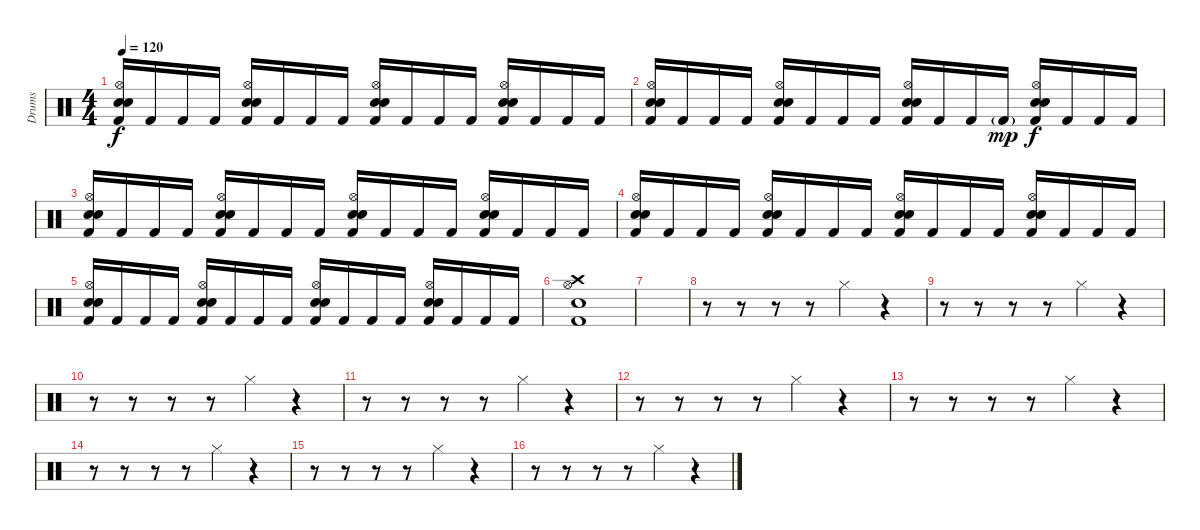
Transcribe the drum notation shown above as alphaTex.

\track ("Drums" "Drums") {instrument percussion}
\staff {score}
\articulation defaults
\ts (4 4)
\tempo 120
\clef neutral
\ks c
("Kick (hit) 2" "Hi-Hat (open)" "Electric Snare (hit)" "Snare (hit) 2").16{dy f} "Kick (hit) 2".16 "Kick (hit) 2".16 "Kick (hit) 2".16 ("Kick (hit) 2" "Hi-Hat (open)" "Electric Snare (hit)" "Snare (hit) 2").16 "Kick (hit) 2".16 "Kick (hit) 2".16 "Kick (hit) 2".16 ("Kick (hit) 2" "Hi-Hat (open)" "Electric Snare (hit)" "Snare (hit) 2").16 "Kick (hit) 2".16 "Kick (hit) 2".16 "Kick (hit) 2".16 ("Kick (hit) 2" "Hi-Hat (open)" "Electric Snare (hit)" "Snare (hit) 2").16 "Kick (hit) 2".16 "Kick (hit) 2".16 "Kick (hit) 2".16 |
("Kick (hit) 2" "Hi-Hat (open)" "Electric Snare (hit)" "Snare (hit) 2").16 "Kick (hit) 2".16 "Kick (hit) 2".16 "Kick (hit) 2".16 ("Kick (hit) 2" "Hi-Hat (open)" "Electric Snare (hit)" "Snare (hit) 2").16 "Kick (hit) 2".16 "Kick (hit) 2".16 "Kick (hit) 2".16 ("Kick (hit) 2" "Hi-Hat (open)" "Electric Snare (hit)" "Snare (hit) 2").16 "Kick (hit) 2".16 "Kick (hit) 2".16 "Kick (hit) 2"{g}.16{dy mp} ("Kick (hit) 2" "Hi-Hat (open)" "Electric Snare (hit)" "Snare (hit) 2").16{dy f} "Kick (hit) 2".16 "Kick (hit) 2".16 "Kick (hit) 2".16 |
("Kick (hit) 2" "Hi-Hat (open)" "Electric Snare (hit)" "Snare (hit) 2").16 "Kick (hit) 2".16 "Kick (hit) 2".16 "Kick (hit) 2".16 ("Kick (hit) 2" "Hi-Hat (open)" "Electric Snare (hit)" "Snare (hit) 2").16 "Kick (hit) 2".16 "Kick (hit) 2".16 "Kick (hit) 2".16 ("Kick (hit) 2" "Hi-Hat (open)" "Electric Snare (hit)" "Snare (hit) 2").16 "Kick (hit) 2".16 "Kick (hit) 2".16 "Kick (hit) 2".16 ("Kick (hit) 2" "Hi-Hat (open)" "Electric Snare (hit)" "Snare (hit) 2").16 "Kick (hit) 2".16 "Kick (hit) 2".16 "Kick (hit) 2".16 |
("Kick (hit) 2" "Hi-Hat (open)" "Electric Snare (hit)" "Snare (hit) 2").16 "Kick (hit) 2".16 "Kick (hit) 2".16 "Kick (hit) 2".16 ("Kick (hit) 2" "Hi-Hat (open)" "Electric Snare (hit)" "Snare (hit) 2").16 "Kick (hit) 2".16 "Kick (hit) 2".16 "Kick (hit) 2".16 ("Kick (hit) 2" "Hi-Hat (open)" "Electric Snare (hit)" "Snare (hit) 2").16 "Kick (hit) 2".16 "Kick (hit) 2".16 "Kick (hit) 2".16 ("Kick (hit) 2" "Hi-Hat (open)" "Electric Snare (hit)" "Snare (hit) 2").16 "Kick (hit) 2".16 "Kick (hit) 2".16 "Kick (hit) 2".16 |
("Kick (hit) 2" "Hi-Hat (open)" "Electric Snare (hit)" "Snare (hit) 2").16 "Kick (hit) 2".16 "Kick (hit) 2".16 "Kick (hit) 2".16 ("Kick (hit) 2" "Hi-Hat (open)" "Electric Snare (hit)" "Snare (hit) 2").16 "Kick (hit) 2".16 "Kick (hit) 2".16 "Kick (hit) 2".16 ("Kick (hit) 2" "Hi-Hat (open)" "Electric Snare (hit)" "Snare (hit) 2").16 "Kick (hit) 2".16 "Kick (hit) 2".16 "Kick (hit) 2".16 ("Kick (hit) 2" "Hi-Hat (open)" "Electric Snare (hit)" "Snare (hit) 2").16 "Kick (hit) 2".16 "Kick (hit) 2".16 "Kick (hit) 2".16 |
("Hi-Hat (open)" "Kick (hit) 2" "Electric Snare (hit)" "Crash high (hit)").1 |
|
r.8 r.8 r.8 r.8 "Hi-Hat (closed)".4 r.4 |
r.8 r.8 r.8 r.8 "Hi-Hat (closed)".4 r.4 |
r.8 r.8 r.8 r.8 "Hi-Hat (closed)".4 r.4 |
r.8 r.8 r.8 r.8 "Hi-Hat (closed)".4 r.4 |
r.8 r.8 r.8 r.8 "Hi-Hat (closed)".4 r.4 |
r.8 r.8 r.8 r.8 "Hi-Hat (closed)".4 r.4 |
r.8 r.8 r.8 r.8 "Hi-Hat (closed)".4 r.4 |
r.8 r.8 r.8 r.8 "Hi-Hat (closed)".4 r.4 |
r.8 r.8 r.8 r.8 "Hi-Hat (closed)".4 r.4
